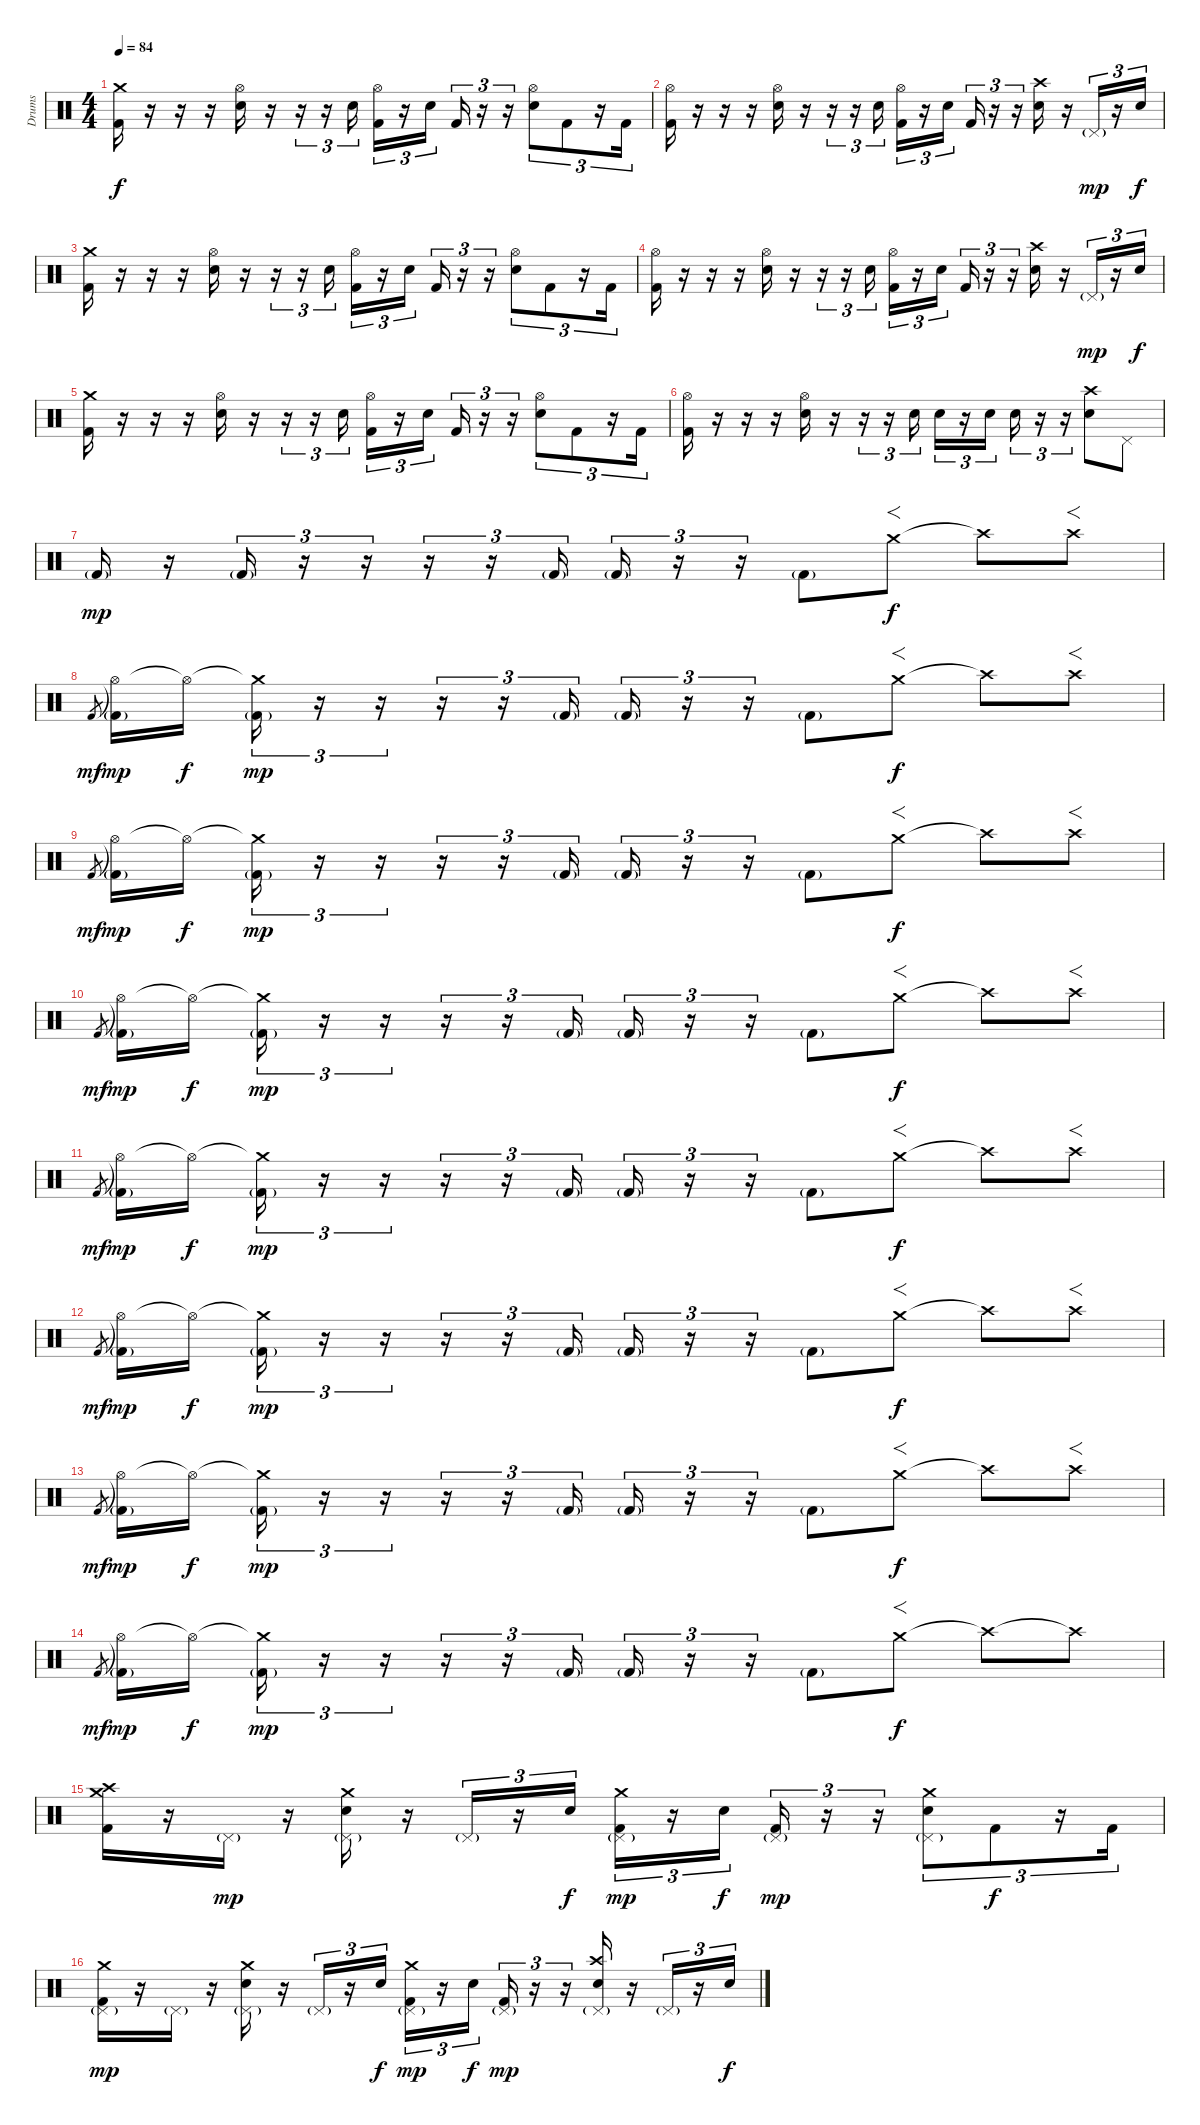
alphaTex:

\track ("Drums" "Drums") {instrument percussion}
\staff {score}
\articulation defaults
\ts (4 4)
\tempo 84
\clef neutral
\ks c
("Crash medium (hit)" "Kick (hit) 2").16{dy f} r.16 r.16 r.16 ("Hi-Hat (open)" "Electric Snare (hit)").16 r.16 r.16{tu (3 2)} r.16{tu (3 2)} "Electric Snare (hit)".16{tu (3 2)} ("Hi-Hat (open)" "Kick (hit) 2").16{tu (3 2)} r.16{tu (3 2)} "Electric Snare (hit)".16{tu (3 2)} "Kick (hit) 2".16{tu (3 2)} r.16{tu (3 2)} r.16{tu (3 2)} ("Hi-Hat (open)" "Electric Snare (hit)").8{tu (3 2)} "Kick (hit) 2".8{tu (3 2)} r.16{tu (3 2)} "Kick (hit) 2".16{tu (3 2)} |
("Hi-Hat (open)" "Kick (hit) 2").16 r.16 r.16 r.16 ("Hi-Hat (open)" "Electric Snare (hit)").16 r.16 r.16{tu (3 2)} r.16{tu (3 2)} "Electric Snare (hit)".16{tu (3 2)} ("Hi-Hat (open)" "Kick (hit) 2").16{tu (3 2)} r.16{tu (3 2)} "Electric Snare (hit)".16{tu (3 2)} "Kick (hit) 2".16{tu (3 2)} r.16{tu (3 2)} r.16{tu (3 2)} ("Crash high (hit)" "Electric Snare (hit)").16 r.16 "Pedal Hi-Hat (hit)"{g}.16{tu (3 2) dy mp} r.16{tu (3 2)} "Electric Snare (hit)".16{tu (3 2) dy f} |
("Crash medium (hit)" "Kick (hit) 2").16 r.16 r.16 r.16 ("Hi-Hat (open)" "Electric Snare (hit)").16 r.16 r.16{tu (3 2)} r.16{tu (3 2)} "Electric Snare (hit)".16{tu (3 2)} ("Hi-Hat (open)" "Kick (hit) 2").16{tu (3 2)} r.16{tu (3 2)} "Electric Snare (hit)".16{tu (3 2)} "Kick (hit) 2".16{tu (3 2)} r.16{tu (3 2)} r.16{tu (3 2)} ("Hi-Hat (open)" "Electric Snare (hit)").8{tu (3 2)} "Kick (hit) 2".8{tu (3 2)} r.16{tu (3 2)} "Kick (hit) 2".16{tu (3 2)} |
("Hi-Hat (open)" "Kick (hit) 2").16 r.16 r.16 r.16 ("Hi-Hat (open)" "Electric Snare (hit)").16 r.16 r.16{tu (3 2)} r.16{tu (3 2)} "Electric Snare (hit)".16{tu (3 2)} ("Hi-Hat (open)" "Kick (hit) 2").16{tu (3 2)} r.16{tu (3 2)} "Electric Snare (hit)".16{tu (3 2)} "Kick (hit) 2".16{tu (3 2)} r.16{tu (3 2)} r.16{tu (3 2)} ("Crash high (hit)" "Electric Snare (hit)").16 r.16 "Pedal Hi-Hat (hit)"{g}.16{tu (3 2) dy mp} r.16{tu (3 2)} "Electric Snare (hit)".16{tu (3 2) dy f} |
("Crash medium (hit)" "Kick (hit) 2").16 r.16 r.16 r.16 ("Hi-Hat (open)" "Electric Snare (hit)").16 r.16 r.16{tu (3 2)} r.16{tu (3 2)} "Electric Snare (hit)".16{tu (3 2)} ("Hi-Hat (open)" "Kick (hit) 2").16{tu (3 2)} r.16{tu (3 2)} "Electric Snare (hit)".16{tu (3 2)} "Kick (hit) 2".16{tu (3 2)} r.16{tu (3 2)} r.16{tu (3 2)} ("Hi-Hat (open)" "Electric Snare (hit)").8{tu (3 2)} "Kick (hit) 2".8{tu (3 2)} r.16{tu (3 2)} "Kick (hit) 2".16{tu (3 2)} |
("Hi-Hat (open)" "Kick (hit) 2").16 r.16 r.16 r.16 ("Hi-Hat (open)" "Electric Snare (hit)").16 r.16 r.16{tu (3 2)} r.16{tu (3 2)} "Electric Snare (hit)".16{tu (3 2)} "Electric Snare (hit)".16{tu (3 2)} r.16{tu (3 2)} "Electric Snare (hit)".16{tu (3 2)} "Electric Snare (hit)".16{tu (3 2)} r.16{tu (3 2)} r.16{tu (3 2)} ("Crash high (hit)" "Electric Snare (hit)").8 "Pedal Hi-Hat (hit)".8 |
"Kick (hit) 2"{g}.16{dy mp} r.16 "Kick (hit) 2"{g}.16{tu (3 2)} r.16{tu (3 2)} r.16{tu (3 2)} r.16{tu (3 2)} r.16{tu (3 2)} "Kick (hit) 2"{g}.16{tu (3 2)} "Kick (hit) 2"{g}.16{tu (3 2)} r.16{tu (3 2)} r.16{tu (3 2)} "Kick (hit) 2"{g}.8 "Crash medium (hit)".8{f dy f} "Crash high (hit)"{t}.8 "Crash high (hit)".8{f} |
"Kick (hit) 2".8{gr dy mf} ("Hi-Hat (open)"{t} "Kick (hit) 2"{g}).16{dy mp} "Hi-Hat (open)"{t}.16{dy f} ("Crash medium (hit)"{t} "Kick (hit) 2"{g}).16{tu (3 2) dy mp} r.16{tu (3 2)} r.16{tu (3 2)} r.16{tu (3 2)} r.16{tu (3 2)} "Kick (hit) 2"{g}.16{tu (3 2)} "Kick (hit) 2"{g}.16{tu (3 2)} r.16{tu (3 2)} r.16{tu (3 2)} "Kick (hit) 2"{g}.8 "Crash medium (hit)".8{f dy f} "Crash high (hit)"{t}.8 "Crash high (hit)".8{f} |
"Kick (hit) 2".8{gr dy mf} ("Hi-Hat (open)"{t} "Kick (hit) 2"{g}).16{dy mp} "Hi-Hat (open)"{t}.16{dy f} ("Crash medium (hit)"{t} "Kick (hit) 2"{g}).16{tu (3 2) dy mp} r.16{tu (3 2)} r.16{tu (3 2)} r.16{tu (3 2)} r.16{tu (3 2)} "Kick (hit) 2"{g}.16{tu (3 2)} "Kick (hit) 2"{g}.16{tu (3 2)} r.16{tu (3 2)} r.16{tu (3 2)} "Kick (hit) 2"{g}.8 "Crash medium (hit)".8{f dy f} "Crash high (hit)"{t}.8 "Crash high (hit)".8{f} |
"Kick (hit) 2".8{gr dy mf} ("Hi-Hat (open)"{t} "Kick (hit) 2"{g}).16{dy mp} "Hi-Hat (open)"{t}.16{dy f} ("Crash medium (hit)"{t} "Kick (hit) 2"{g}).16{tu (3 2) dy mp} r.16{tu (3 2)} r.16{tu (3 2)} r.16{tu (3 2)} r.16{tu (3 2)} "Kick (hit) 2"{g}.16{tu (3 2)} "Kick (hit) 2"{g}.16{tu (3 2)} r.16{tu (3 2)} r.16{tu (3 2)} "Kick (hit) 2"{g}.8 "Crash medium (hit)".8{f dy f} "Crash high (hit)"{t}.8 "Crash high (hit)".8{f} |
"Kick (hit) 2".8{gr dy mf} ("Hi-Hat (open)"{t} "Kick (hit) 2"{g}).16{dy mp} "Hi-Hat (open)"{t}.16{dy f} ("Crash medium (hit)"{t} "Kick (hit) 2"{g}).16{tu (3 2) dy mp} r.16{tu (3 2)} r.16{tu (3 2)} r.16{tu (3 2)} r.16{tu (3 2)} "Kick (hit) 2"{g}.16{tu (3 2)} "Kick (hit) 2"{g}.16{tu (3 2)} r.16{tu (3 2)} r.16{tu (3 2)} "Kick (hit) 2"{g}.8 "Crash medium (hit)".8{f dy f} "Crash high (hit)"{t}.8 "Crash high (hit)".8{f} |
"Kick (hit) 2".8{gr dy mf} ("Hi-Hat (open)"{t} "Kick (hit) 2"{g}).16{dy mp} "Hi-Hat (open)"{t}.16{dy f} ("Crash medium (hit)"{t} "Kick (hit) 2"{g}).16{tu (3 2) dy mp} r.16{tu (3 2)} r.16{tu (3 2)} r.16{tu (3 2)} r.16{tu (3 2)} "Kick (hit) 2"{g}.16{tu (3 2)} "Kick (hit) 2"{g}.16{tu (3 2)} r.16{tu (3 2)} r.16{tu (3 2)} "Kick (hit) 2"{g}.8 "Crash medium (hit)".8{f dy f} "Crash high (hit)"{t}.8 "Crash high (hit)".8{f} |
"Kick (hit) 2".8{gr dy mf} ("Hi-Hat (open)"{t} "Kick (hit) 2"{g}).16{dy mp} "Hi-Hat (open)"{t}.16{dy f} ("Crash medium (hit)"{t} "Kick (hit) 2"{g}).16{tu (3 2) dy mp} r.16{tu (3 2)} r.16{tu (3 2)} r.16{tu (3 2)} r.16{tu (3 2)} "Kick (hit) 2"{g}.16{tu (3 2)} "Kick (hit) 2"{g}.16{tu (3 2)} r.16{tu (3 2)} r.16{tu (3 2)} "Kick (hit) 2"{g}.8 "Crash medium (hit)".8{f dy f} "Crash high (hit)"{t}.8 "Crash high (hit)".8{f} |
"Kick (hit) 2".8{gr dy mf} ("Hi-Hat (open)"{t} "Kick (hit) 2"{g}).16{dy mp} "Hi-Hat (open)"{t}.16{dy f} ("Crash medium (hit)"{t} "Kick (hit) 2"{g}).16{tu (3 2) dy mp} r.16{tu (3 2)} r.16{tu (3 2)} r.16{tu (3 2)} r.16{tu (3 2)} "Kick (hit) 2"{g}.16{tu (3 2)} "Kick (hit) 2"{g}.16{tu (3 2)} r.16{tu (3 2)} r.16{tu (3 2)} "Kick (hit) 2"{g}.8 "Crash medium (hit)".8{f dy f} "Crash high (hit)"{t}.8 "Crash high (hit)"{t}.8 |
("Crash medium (hit)" "Crash high (hit)" "Kick (hit) 2").16 r.16 "Pedal Hi-Hat (hit)"{g}.16{dy mp} r.16 ("Pedal Hi-Hat (hit)"{g} "Crash medium (hit)" "Electric Snare (hit)").16 r.16 "Pedal Hi-Hat (hit)"{g}.16{tu (3 2)} r.16{tu (3 2)} "Electric Snare (hit)".16{tu (3 2) dy f} ("Pedal Hi-Hat (hit)"{g} "Crash medium (hit)" "Kick (hit) 2").16{tu (3 2) dy mp} r.16{tu (3 2)} "Electric Snare (hit)".16{tu (3 2) dy f} ("Pedal Hi-Hat (hit)"{g} "Kick (hit) 2").16{tu (3 2) dy mp} r.16{tu (3 2)} r.16{tu (3 2)} ("Pedal Hi-Hat (hit)"{g} "Crash medium (hit)" "Electric Snare (hit)").8{tu (3 2)} "Kick (hit) 2".8{tu (3 2) dy f} r.16{tu (3 2)} "Kick (hit) 2".16{tu (3 2)} |
("Pedal Hi-Hat (hit)"{g} "Crash medium (hit)" "Kick (hit) 2").16{dy mp} r.16 "Pedal Hi-Hat (hit)"{g}.16 r.16 ("Pedal Hi-Hat (hit)"{g} "Crash medium (hit)" "Electric Snare (hit)").16 r.16 "Pedal Hi-Hat (hit)"{g}.16{tu (3 2)} r.16{tu (3 2)} "Electric Snare (hit)".16{tu (3 2) dy f} ("Pedal Hi-Hat (hit)"{g} "Crash medium (hit)" "Kick (hit) 2").16{tu (3 2) dy mp} r.16{tu (3 2)} "Electric Snare (hit)".16{tu (3 2) dy f} ("Pedal Hi-Hat (hit)"{g} "Kick (hit) 2").16{tu (3 2) dy mp} r.16{tu (3 2)} r.16{tu (3 2)} ("Pedal Hi-Hat (hit)"{g} "Crash high (hit)" "Electric Snare (hit)").16 r.16 "Pedal Hi-Hat (hit)"{g}.16{tu (3 2)} r.16{tu (3 2)} "Electric Snare (hit)".16{tu (3 2) dy f}
